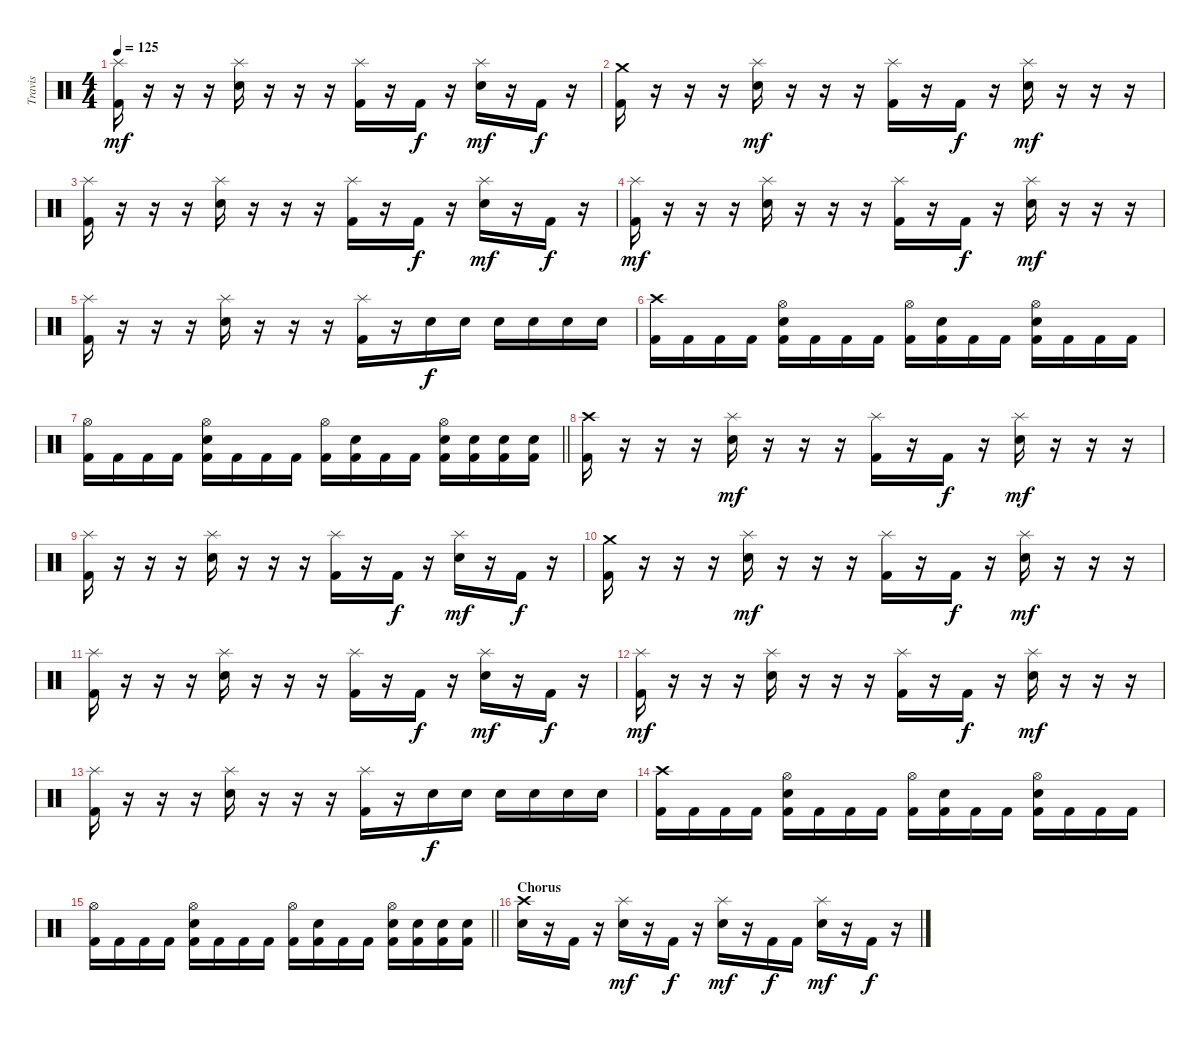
\track ("Travis" "Travis") {instrument percussion}
\staff {score}
\articulation defaults
\ts (4 4)
\tempo 125
\clef neutral
\ks c
("Splash (hit)" "Kick (hit) 2").16{dy mf} r.16 r.16 r.16 ("Splash (hit)" "Electric Snare (hit)").16 r.16 r.16 r.16 ("Splash (hit)" "Kick (hit) 2").16 r.16 "Kick (hit) 2".16{dy f} r.16 ("Splash (hit)" "Electric Snare (hit)").16{dy mf} r.16 "Kick (hit) 2".16{dy f} r.16 |
("Crash medium (hit)" "Kick (hit) 2").16 r.16 r.16 r.16 ("Splash (hit)" "Electric Snare (hit)").16{dy mf} r.16 r.16 r.16 ("Splash (hit)" "Kick (hit) 2").16 r.16 "Kick (hit) 2".16{dy f} r.16 ("Splash (hit)" "Electric Snare (hit)").16{dy mf} r.16 r.16 r.16 |
("Splash (hit)" "Kick (hit) 2").16 r.16 r.16 r.16 ("Splash (hit)" "Electric Snare (hit)").16 r.16 r.16 r.16 ("Splash (hit)" "Kick (hit) 2").16 r.16 "Kick (hit) 2".16{dy f} r.16 ("Splash (hit)" "Electric Snare (hit)").16{dy mf} r.16 "Kick (hit) 2".16{dy f} r.16 |
("Splash (hit)" "Kick (hit) 2").16{dy mf} r.16 r.16 r.16 ("Splash (hit)" "Electric Snare (hit)").16 r.16 r.16 r.16 ("Splash (hit)" "Kick (hit) 2").16 r.16 "Kick (hit) 2".16{dy f} r.16 ("Splash (hit)" "Electric Snare (hit)").16{dy mf} r.16 r.16 r.16 |
("Splash (hit)" "Kick (hit) 2").16 r.16 r.16 r.16 ("Splash (hit)" "Electric Snare (hit)").16 r.16 r.16 r.16 ("Splash (hit)" "Kick (hit) 2").16 r.16 "Electric Snare (hit)".16{dy f} "Electric Snare (hit)".16 "Electric Snare (hit)".16 "Electric Snare (hit)".16 "Electric Snare (hit)".16 "Electric Snare (hit)".16 |
("Crash high (hit)" "Kick (hit) 2").16 "Kick (hit) 2".16 "Kick (hit) 2".16 "Kick (hit) 2".16 ("Hi-Hat (open)" "Electric Snare (hit)" "Kick (hit) 2").16 "Kick (hit) 2".16 "Kick (hit) 2".16 "Kick (hit) 2".16 ("Hi-Hat (open)" "Kick (hit) 2").16 ("Electric Snare (hit)" "Kick (hit) 2").16 "Kick (hit) 2".16 "Kick (hit) 2".16 ("Hi-Hat (open)" "Electric Snare (hit)" "Kick (hit) 2").16 "Kick (hit) 2".16 "Kick (hit) 2".16 "Kick (hit) 2".16 |
\barLineRight lightlight
("Hi-Hat (open)" "Kick (hit) 2").16 "Kick (hit) 2".16 "Kick (hit) 2".16 "Kick (hit) 2".16 ("Hi-Hat (open)" "Electric Snare (hit)" "Kick (hit) 2").16 "Kick (hit) 2".16 "Kick (hit) 2".16 "Kick (hit) 2".16 ("Hi-Hat (open)" "Kick (hit) 2").16 ("Electric Snare (hit)" "Kick (hit) 2").16 "Kick (hit) 2".16 "Kick (hit) 2".16 ("Hi-Hat (open)" "Electric Snare (hit)" "Kick (hit) 2").16 ("Electric Snare (hit)" "Kick (hit) 2").16 ("Electric Snare (hit)" "Kick (hit) 2").16 ("Electric Snare (hit)" "Kick (hit) 2").16 |
("Crash high (hit)" "Kick (hit) 2").16 r.16 r.16 r.16 ("Splash (hit)" "Electric Snare (hit)").16{dy mf} r.16 r.16 r.16 ("Splash (hit)" "Kick (hit) 2").16 r.16 "Kick (hit) 2".16{dy f} r.16 ("Splash (hit)" "Electric Snare (hit)").16{dy mf} r.16 r.16 r.16 |
("Splash (hit)" "Kick (hit) 2").16 r.16 r.16 r.16 ("Splash (hit)" "Electric Snare (hit)").16 r.16 r.16 r.16 ("Splash (hit)" "Kick (hit) 2").16 r.16 "Kick (hit) 2".16{dy f} r.16 ("Splash (hit)" "Electric Snare (hit)").16{dy mf} r.16 "Kick (hit) 2".16{dy f} r.16 |
("Crash medium (hit)" "Kick (hit) 2").16 r.16 r.16 r.16 ("Splash (hit)" "Electric Snare (hit)").16{dy mf} r.16 r.16 r.16 ("Splash (hit)" "Kick (hit) 2").16 r.16 "Kick (hit) 2".16{dy f} r.16 ("Splash (hit)" "Electric Snare (hit)").16{dy mf} r.16 r.16 r.16 |
("Splash (hit)" "Kick (hit) 2").16 r.16 r.16 r.16 ("Splash (hit)" "Electric Snare (hit)").16 r.16 r.16 r.16 ("Splash (hit)" "Kick (hit) 2").16 r.16 "Kick (hit) 2".16{dy f} r.16 ("Splash (hit)" "Electric Snare (hit)").16{dy mf} r.16 "Kick (hit) 2".16{dy f} r.16 |
("Splash (hit)" "Kick (hit) 2").16{dy mf} r.16 r.16 r.16 ("Splash (hit)" "Electric Snare (hit)").16 r.16 r.16 r.16 ("Splash (hit)" "Kick (hit) 2").16 r.16 "Kick (hit) 2".16{dy f} r.16 ("Splash (hit)" "Electric Snare (hit)").16{dy mf} r.16 r.16 r.16 |
("Splash (hit)" "Kick (hit) 2").16 r.16 r.16 r.16 ("Splash (hit)" "Electric Snare (hit)").16 r.16 r.16 r.16 ("Splash (hit)" "Kick (hit) 2").16 r.16 "Electric Snare (hit)".16{dy f} "Electric Snare (hit)".16 "Electric Snare (hit)".16 "Electric Snare (hit)".16 "Electric Snare (hit)".16 "Electric Snare (hit)".16 |
("Crash high (hit)" "Kick (hit) 2").16 "Kick (hit) 2".16 "Kick (hit) 2".16 "Kick (hit) 2".16 ("Hi-Hat (open)" "Electric Snare (hit)" "Kick (hit) 2").16 "Kick (hit) 2".16 "Kick (hit) 2".16 "Kick (hit) 2".16 ("Hi-Hat (open)" "Kick (hit) 2").16 ("Electric Snare (hit)" "Kick (hit) 2").16 "Kick (hit) 2".16 "Kick (hit) 2".16 ("Hi-Hat (open)" "Electric Snare (hit)" "Kick (hit) 2").16 "Kick (hit) 2".16 "Kick (hit) 2".16 "Kick (hit) 2".16 |
\barLineRight lightlight
("Hi-Hat (open)" "Kick (hit) 2").16 "Kick (hit) 2".16 "Kick (hit) 2".16 "Kick (hit) 2".16 ("Hi-Hat (open)" "Electric Snare (hit)" "Kick (hit) 2").16 "Kick (hit) 2".16 "Kick (hit) 2".16 "Kick (hit) 2".16 ("Hi-Hat (open)" "Kick (hit) 2").16 ("Electric Snare (hit)" "Kick (hit) 2").16 "Kick (hit) 2".16 "Kick (hit) 2".16 ("Hi-Hat (open)" "Electric Snare (hit)" "Kick (hit) 2").16 ("Electric Snare (hit)" "Kick (hit) 2").16 ("Electric Snare (hit)" "Kick (hit) 2").16 ("Electric Snare (hit)" "Kick (hit) 2").16 |
\section ("" "Chorus")
("Crash high (hit)" "Electric Snare (hit)").16 r.16 "Kick (hit) 2".16 r.16 ("Splash (hit)" "Electric Snare (hit)").16{dy mf} r.16 "Kick (hit) 2".16{dy f} r.16 ("Splash (hit)" "Electric Snare (hit)").16{dy mf} r.16 "Kick (hit) 2".16{dy f} "Kick (hit) 2".16 ("Splash (hit)" "Electric Snare (hit)").16{dy mf} r.16 "Kick (hit) 2".16{dy f} r.16
